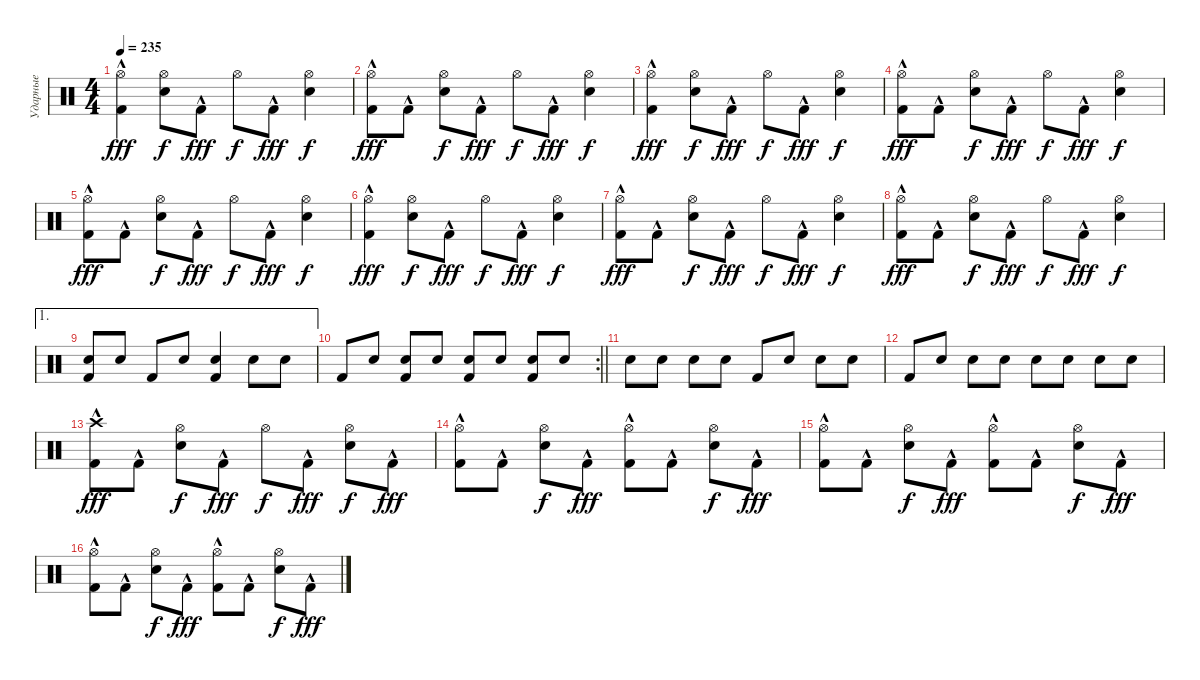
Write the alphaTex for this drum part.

\track ("Ударные" "Ударные") {instrument percussion}
\staff {score}
\articulation defaults
\ts (4 4)
\tempo 235
\clef neutral
\ks c
("Kick (hit) 2"{hac} "Hi-Hat (open)").4{dy fff} ("Snare (hit) 2" "Hi-Hat (open)").8{dy f} "Kick (hit) 2"{hac}.8{dy fff} "Hi-Hat (open)".8{dy f} "Kick (hit) 2"{hac}.8{dy fff} ("Snare (hit) 2" "Hi-Hat (open)").4{dy f} |
("Kick (hit) 2"{hac} "Hi-Hat (open)").8{dy fff} "Kick (hit) 2"{hac}.8 ("Snare (hit) 2" "Hi-Hat (open)").8{dy f} "Kick (hit) 2"{hac}.8{dy fff} "Hi-Hat (open)".8{dy f} "Kick (hit) 2"{hac}.8{dy fff} ("Snare (hit) 2" "Hi-Hat (open)").4{dy f} |
("Kick (hit) 2"{hac} "Hi-Hat (open)").4{dy fff} ("Snare (hit) 2" "Hi-Hat (open)").8{dy f} "Kick (hit) 2"{hac}.8{dy fff} "Hi-Hat (open)".8{dy f} "Kick (hit) 2"{hac}.8{dy fff} ("Snare (hit) 2" "Hi-Hat (open)").4{dy f} |
("Kick (hit) 2"{hac} "Hi-Hat (open)").8{dy fff} "Kick (hit) 2"{hac}.8 ("Snare (hit) 2" "Hi-Hat (open)").8{dy f} "Kick (hit) 2"{hac}.8{dy fff} "Hi-Hat (open)".8{dy f} "Kick (hit) 2"{hac}.8{dy fff} ("Snare (hit) 2" "Hi-Hat (open)").4{dy f} |
("Kick (hit) 2"{hac} "Hi-Hat (open)").8{dy fff} "Kick (hit) 2"{hac}.8 ("Snare (hit) 2" "Hi-Hat (open)").8{dy f} "Kick (hit) 2"{hac}.8{dy fff} "Hi-Hat (open)".8{dy f} "Kick (hit) 2"{hac}.8{dy fff} ("Snare (hit) 2" "Hi-Hat (open)").4{dy f} |
("Kick (hit) 2"{hac} "Hi-Hat (open)").4{dy fff} ("Snare (hit) 2" "Hi-Hat (open)").8{dy f} "Kick (hit) 2"{hac}.8{dy fff} "Hi-Hat (open)".8{dy f} "Kick (hit) 2"{hac}.8{dy fff} ("Snare (hit) 2" "Hi-Hat (open)").4{dy f} |
("Kick (hit) 2"{hac} "Hi-Hat (open)").8{dy fff} "Kick (hit) 2"{hac}.8 ("Snare (hit) 2" "Hi-Hat (open)").8{dy f} "Kick (hit) 2"{hac}.8{dy fff} "Hi-Hat (open)".8{dy f} "Kick (hit) 2"{hac}.8{dy fff} ("Snare (hit) 2" "Hi-Hat (open)").4{dy f} |
("Kick (hit) 2"{hac} "Hi-Hat (open)").8{dy fff} "Kick (hit) 2"{hac}.8 ("Snare (hit) 2" "Hi-Hat (open)").8{dy f} "Kick (hit) 2"{hac}.8{dy fff} "Hi-Hat (open)".8{dy f} "Kick (hit) 2"{hac}.8{dy fff} ("Snare (hit) 2" "Hi-Hat (open)").4{dy f} |
\ae 1
("Kick (hit) 2" "Snare (hit) 2").8 "Snare (hit) 2".8 "Kick (hit) 2".8 "Snare (hit) 2".8 ("Kick (hit) 2" "Snare (hit) 2").4 "Snare (hit) 2".8 "Snare (hit) 2".8 |
\rc 2
\barLineRight lightlight "Kick (hit) 2".8 "Snare (hit) 2".8
("Kick (hit) 2" "Snare (hit) 2").8 "Snare (hit) 2".8 ("Kick (hit) 2" "Snare (hit) 2").8 "Snare (hit) 2".8 ("Kick (hit) 2" "Snare (hit) 2").8 "Snare (hit) 2".8 |
"Snare (hit) 2".8 "Snare (hit) 2".8 "Snare (hit) 2".8 "Snare (hit) 2".8 "Kick (hit) 2".8 "Snare (hit) 2".8 "Snare (hit) 2".8 "Snare (hit) 2".8 |
"Kick (hit) 2".8 "Snare (hit) 2".8 "Snare (hit) 2".8 "Snare (hit) 2".8 "Snare (hit) 2".8 "Snare (hit) 2".8 "Snare (hit) 2".8 "Snare (hit) 2".8 |
("Kick (hit) 2"{hac} "Crash high (hit)").8{dy fff} "Kick (hit) 2"{hac}.8 ("Snare (hit) 2" "Hi-Hat (open)").8{dy f} "Kick (hit) 2"{hac}.8{dy fff} "Hi-Hat (open)".8{dy f} "Kick (hit) 2"{hac}.8{dy fff} ("Snare (hit) 2" "Hi-Hat (open)").8{dy f} "Kick (hit) 2"{hac}.8{dy fff} |
("Kick (hit) 2"{hac} "Hi-Hat (open)").8 "Kick (hit) 2"{hac}.8 ("Snare (hit) 2" "Hi-Hat (open)").8{dy f} "Kick (hit) 2"{hac}.8{dy fff} ("Kick (hit) 2"{hac} "Hi-Hat (open)").8 "Kick (hit) 2"{hac}.8 ("Snare (hit) 2" "Hi-Hat (open)").8{dy f} "Kick (hit) 2"{hac}.8{dy fff} |
("Kick (hit) 2"{hac} "Hi-Hat (open)").8 "Kick (hit) 2"{hac}.8 ("Snare (hit) 2" "Hi-Hat (open)").8{dy f} "Kick (hit) 2"{hac}.8{dy fff} ("Kick (hit) 2"{hac} "Hi-Hat (open)").8 "Kick (hit) 2"{hac}.8 ("Snare (hit) 2" "Hi-Hat (open)").8{dy f} "Kick (hit) 2"{hac}.8{dy fff} |
("Kick (hit) 2"{hac} "Hi-Hat (open)").8 "Kick (hit) 2"{hac}.8 ("Snare (hit) 2" "Hi-Hat (open)").8{dy f} "Kick (hit) 2"{hac}.8{dy fff} ("Kick (hit) 2"{hac} "Hi-Hat (open)").8 "Kick (hit) 2"{hac}.8 ("Snare (hit) 2" "Hi-Hat (open)").8{dy f} "Kick (hit) 2"{hac}.8{dy fff}
